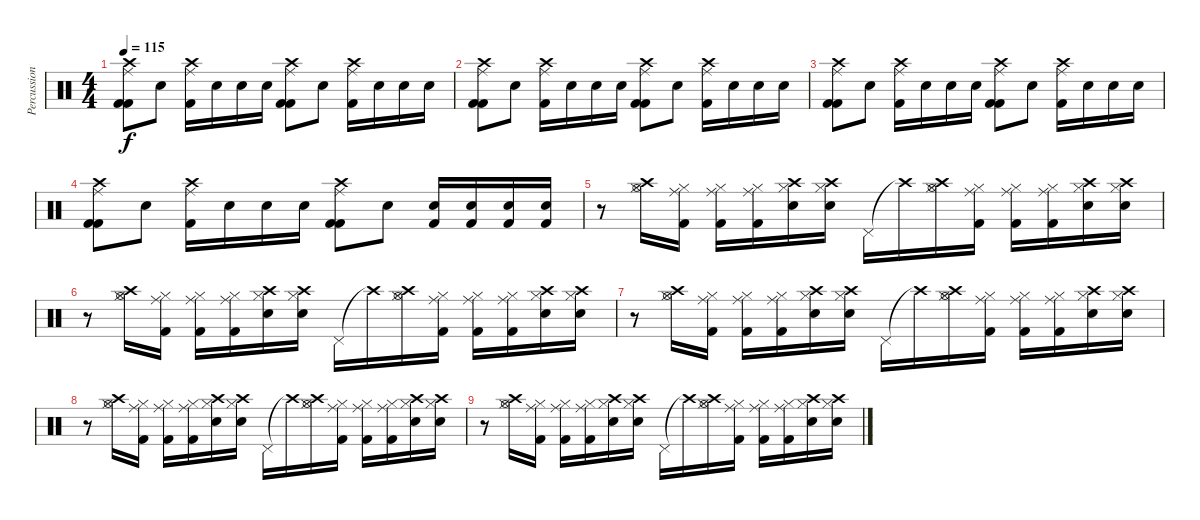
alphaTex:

\track ("Percussion" "Percussion") {instrument percussion}
\staff {score}
\articulation defaults
\ts (4 4)
\tempo 115
\clef neutral
\ks c
("Crash high (hit)" "Ride (middle)" "Kick (hit) 2" "Kick (hit) 2").8{dy f} "Snare (hit) 2".8 ("Crash high (hit)" "Ride (middle)" "Kick (hit) 2").16 "Snare (hit) 2".16 "Snare (hit) 2".16 "Snare (hit) 2".16 ("Crash high (hit)" "Ride (middle)" "Kick (hit) 2" "Kick (hit) 2").8 "Snare (hit) 2".8 ("Crash high (hit)" "Ride (middle)" "Kick (hit) 2").16 "Snare (hit) 2".16 "Snare (hit) 2".16 "Snare (hit) 2".16 |
("Crash high (hit)" "Ride (middle)" "Kick (hit) 2" "Kick (hit) 2").8 "Snare (hit) 2".8 ("Crash high (hit)" "Ride (middle)" "Kick (hit) 2").16 "Snare (hit) 2".16 "Snare (hit) 2".16 "Snare (hit) 2".16 ("Crash high (hit)" "Ride (middle)" "Kick (hit) 2" "Kick (hit) 2").8 "Snare (hit) 2".8 ("Crash high (hit)" "Ride (middle)" "Kick (hit) 2").16 "Snare (hit) 2".16 "Snare (hit) 2".16 "Snare (hit) 2".16 |
("Crash high (hit)" "Ride (middle)" "Kick (hit) 2" "Kick (hit) 2").8 "Snare (hit) 2".8 ("Crash high (hit)" "Ride (middle)" "Kick (hit) 2").16 "Snare (hit) 2".16 "Snare (hit) 2".16 "Snare (hit) 2".16 ("Crash high (hit)" "Ride (middle)" "Kick (hit) 2" "Kick (hit) 2").8 "Snare (hit) 2".8 ("Crash high (hit)" "Ride (middle)" "Kick (hit) 2").16 "Snare (hit) 2".16 "Snare (hit) 2".16 "Snare (hit) 2".16 |
("Crash high (hit)" "Ride (middle)" "Kick (hit) 2" "Kick (hit) 2").8 "Snare (hit) 2".8 ("Crash high (hit)" "Ride (middle)" "Kick (hit) 2").16 "Snare (hit) 2".16 "Snare (hit) 2".16 "Snare (hit) 2".16 ("Crash high (hit)" "Ride (middle)" "Kick (hit) 2" "Kick (hit) 2").8 "Snare (hit) 2".8 ("Snare (hit) 2" "Kick (hit) 2").16 ("Kick (hit) 2" "Snare (hit) 2").16 ("Kick (hit) 2" "Snare (hit) 2").16 ("Kick (hit) 2" "Snare (hit) 2").16 |
r.8 ("Hi-Hat (closed)" "Hi-Hat (open)" "Crash high (hit)").16 ("Ride (middle)" "Hi-Hat (closed)" "Kick (hit) 2").16 ("Ride (middle)" "Hi-Hat (closed)" "Kick (hit) 2").16 ("Ride (middle)" "Hi-Hat (closed)" "Kick (hit) 2").16 ("Crash high (hit)" "Hi-Hat (closed)" "Snare (hit) 2").16 ("Crash high (hit)" "Hi-Hat (closed)" "Snare (hit) 2").16 "Pedal Hi-Hat (hit)".16 "Crash high (hit)"{t}.16 ("Hi-Hat (closed)" "Hi-Hat (open)" "Crash high (hit)").16 ("Ride (middle)" "Hi-Hat (closed)" "Kick (hit) 2").16 ("Ride (middle)" "Hi-Hat (closed)" "Kick (hit) 2").16 ("Ride (middle)" "Hi-Hat (closed)" "Kick (hit) 2").16 ("Hi-Hat (closed)" "Crash high (hit)" "Snare (hit) 2").16 ("Hi-Hat (closed)" "Crash high (hit)" "Snare (hit) 2").16 |
r.8 ("Hi-Hat (closed)" "Hi-Hat (open)" "Crash high (hit)").16 ("Ride (middle)" "Hi-Hat (closed)" "Kick (hit) 2").16 ("Ride (middle)" "Hi-Hat (closed)" "Kick (hit) 2").16 ("Ride (middle)" "Hi-Hat (closed)" "Kick (hit) 2").16 ("Crash high (hit)" "Hi-Hat (closed)" "Snare (hit) 2").16 ("Crash high (hit)" "Hi-Hat (closed)" "Snare (hit) 2").16 "Pedal Hi-Hat (hit)".16 "Crash high (hit)"{t}.16 ("Hi-Hat (closed)" "Hi-Hat (open)" "Crash high (hit)").16 ("Ride (middle)" "Hi-Hat (closed)" "Kick (hit) 2").16 ("Ride (middle)" "Hi-Hat (closed)" "Kick (hit) 2").16 ("Ride (middle)" "Hi-Hat (closed)" "Kick (hit) 2").16 ("Hi-Hat (closed)" "Crash high (hit)" "Snare (hit) 2").16 ("Hi-Hat (closed)" "Crash high (hit)" "Snare (hit) 2").16 |
r.8 ("Hi-Hat (closed)" "Hi-Hat (open)" "Crash high (hit)").16 ("Ride (middle)" "Hi-Hat (closed)" "Kick (hit) 2").16 ("Ride (middle)" "Hi-Hat (closed)" "Kick (hit) 2").16 ("Ride (middle)" "Hi-Hat (closed)" "Kick (hit) 2").16 ("Crash high (hit)" "Hi-Hat (closed)" "Snare (hit) 2").16 ("Crash high (hit)" "Hi-Hat (closed)" "Snare (hit) 2").16 "Pedal Hi-Hat (hit)".16 "Crash high (hit)"{t}.16 ("Hi-Hat (closed)" "Hi-Hat (open)" "Crash high (hit)").16 ("Ride (middle)" "Hi-Hat (closed)" "Kick (hit) 2").16 ("Ride (middle)" "Hi-Hat (closed)" "Kick (hit) 2").16 ("Ride (middle)" "Hi-Hat (closed)" "Kick (hit) 2").16 ("Hi-Hat (closed)" "Crash high (hit)" "Snare (hit) 2").16 ("Hi-Hat (closed)" "Crash high (hit)" "Snare (hit) 2").16 |
r.8 ("Hi-Hat (closed)" "Hi-Hat (open)" "Crash high (hit)").16 ("Ride (middle)" "Hi-Hat (closed)" "Kick (hit) 2").16 ("Ride (middle)" "Hi-Hat (closed)" "Kick (hit) 2").16 ("Ride (middle)" "Hi-Hat (closed)" "Kick (hit) 2").16 ("Crash high (hit)" "Hi-Hat (closed)" "Snare (hit) 2").16 ("Crash high (hit)" "Hi-Hat (closed)" "Snare (hit) 2").16 "Pedal Hi-Hat (hit)".16 "Crash high (hit)"{t}.16 ("Hi-Hat (closed)" "Hi-Hat (open)" "Crash high (hit)").16 ("Ride (middle)" "Hi-Hat (closed)" "Kick (hit) 2").16 ("Ride (middle)" "Hi-Hat (closed)" "Kick (hit) 2").16 ("Ride (middle)" "Hi-Hat (closed)" "Kick (hit) 2").16 ("Hi-Hat (closed)" "Crash high (hit)" "Snare (hit) 2").16 ("Hi-Hat (closed)" "Crash high (hit)" "Snare (hit) 2").16 |
r.8 ("Hi-Hat (closed)" "Hi-Hat (open)" "Crash high (hit)").16 ("Ride (middle)" "Hi-Hat (closed)" "Kick (hit) 2").16 ("Ride (middle)" "Hi-Hat (closed)" "Kick (hit) 2").16 ("Ride (middle)" "Hi-Hat (closed)" "Kick (hit) 2").16 ("Crash high (hit)" "Hi-Hat (closed)" "Snare (hit) 2").16 ("Crash high (hit)" "Hi-Hat (closed)" "Snare (hit) 2").16 "Pedal Hi-Hat (hit)".16 "Crash high (hit)"{t}.16 ("Hi-Hat (closed)" "Hi-Hat (open)" "Crash high (hit)").16 ("Ride (middle)" "Hi-Hat (closed)" "Kick (hit) 2").16 ("Ride (middle)" "Hi-Hat (closed)" "Kick (hit) 2").16 ("Ride (middle)" "Hi-Hat (closed)" "Kick (hit) 2").16 ("Hi-Hat (closed)" "Crash high (hit)" "Snare (hit) 2").16 ("Hi-Hat (closed)" "Crash high (hit)" "Snare (hit) 2").16
